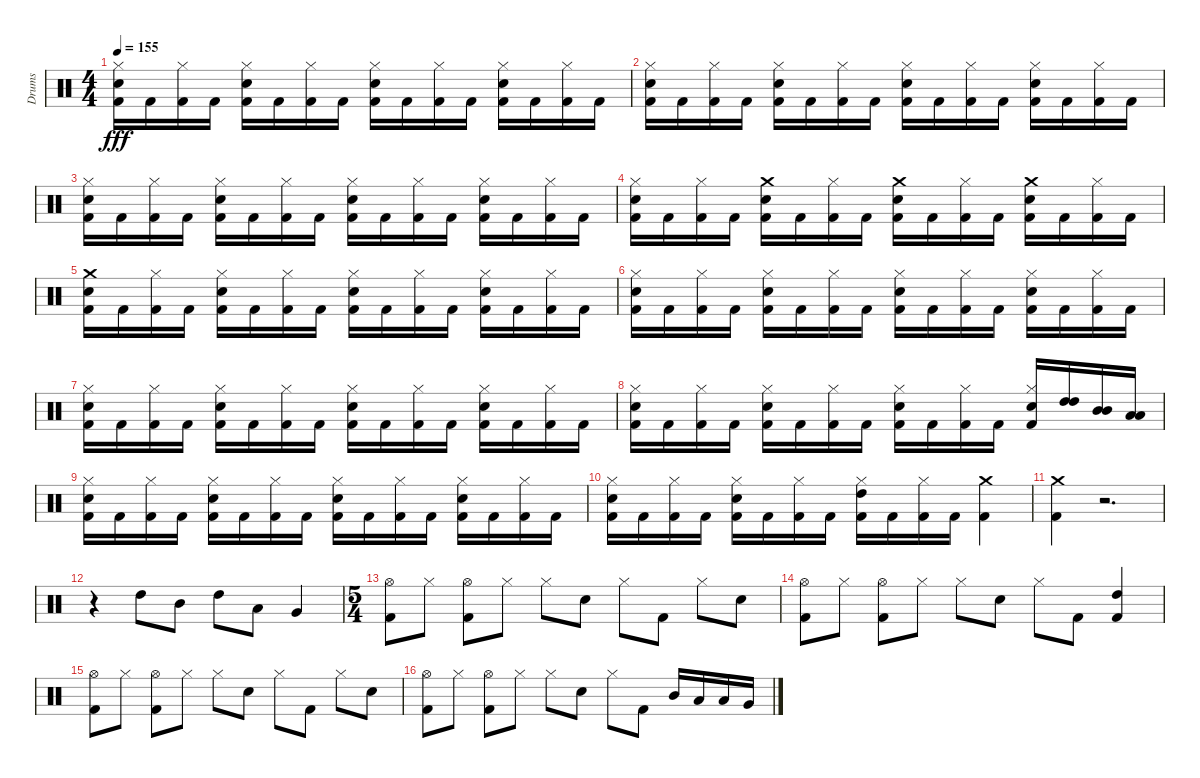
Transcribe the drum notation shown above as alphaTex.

\track ("Drums" "Drums") {instrument percussion}
\staff {score}
\articulation defaults
\ts (4 4)
\tempo 155
\clef neutral
\ks c
("Electric Snare (hit)" "Hi-Hat (closed)" "Kick (hit) 2").16{dy fff} "Kick (hit) 2".16 ("Hi-Hat (closed)" "Kick (hit) 2").16 "Kick (hit) 2".16 ("Electric Snare (hit)" "Hi-Hat (closed)" "Kick (hit) 2").16 "Kick (hit) 2".16 ("Hi-Hat (closed)" "Kick (hit) 2").16 "Kick (hit) 2".16 ("Electric Snare (hit)" "Hi-Hat (closed)" "Kick (hit) 2").16 "Kick (hit) 2".16 ("Hi-Hat (closed)" "Kick (hit) 2").16 "Kick (hit) 2".16 ("Electric Snare (hit)" "Hi-Hat (closed)" "Kick (hit) 2").16 "Kick (hit) 2".16 ("Hi-Hat (closed)" "Kick (hit) 2").16 "Kick (hit) 2".16 |
("Electric Snare (hit)" "Hi-Hat (closed)" "Kick (hit) 2").16 "Kick (hit) 2".16 ("Hi-Hat (closed)" "Kick (hit) 2").16 "Kick (hit) 2".16 ("Electric Snare (hit)" "Hi-Hat (closed)" "Kick (hit) 2").16 "Kick (hit) 2".16 ("Hi-Hat (closed)" "Kick (hit) 2").16 "Kick (hit) 2".16 ("Electric Snare (hit)" "Hi-Hat (closed)" "Kick (hit) 2").16 "Kick (hit) 2".16 ("Hi-Hat (closed)" "Kick (hit) 2").16 "Kick (hit) 2".16 ("Electric Snare (hit)" "Hi-Hat (closed)" "Kick (hit) 2").16 "Kick (hit) 2".16 ("Hi-Hat (closed)" "Kick (hit) 2").16 "Kick (hit) 2".16 |
("Electric Snare (hit)" "Hi-Hat (closed)" "Kick (hit) 2").16 "Kick (hit) 2".16 ("Hi-Hat (closed)" "Kick (hit) 2").16 "Kick (hit) 2".16 ("Electric Snare (hit)" "Hi-Hat (closed)" "Kick (hit) 2").16 "Kick (hit) 2".16 ("Hi-Hat (closed)" "Kick (hit) 2").16 "Kick (hit) 2".16 ("Electric Snare (hit)" "Hi-Hat (closed)" "Kick (hit) 2").16 "Kick (hit) 2".16 ("Hi-Hat (closed)" "Kick (hit) 2").16 "Kick (hit) 2".16 ("Electric Snare (hit)" "Hi-Hat (closed)" "Kick (hit) 2").16 "Kick (hit) 2".16 ("Hi-Hat (closed)" "Kick (hit) 2").16 "Kick (hit) 2".16 |
("Electric Snare (hit)" "Hi-Hat (closed)" "Kick (hit) 2").16 "Kick (hit) 2".16 ("Hi-Hat (closed)" "Kick (hit) 2").16 "Kick (hit) 2".16 ("Electric Snare (hit)" "Crash medium (hit)" "Kick (hit) 2").16 "Kick (hit) 2".16 ("Hi-Hat (closed)" "Kick (hit) 2").16 "Kick (hit) 2".16 ("Electric Snare (hit)" "Crash medium (hit)" "Kick (hit) 2").16 "Kick (hit) 2".16 ("Hi-Hat (closed)" "Kick (hit) 2").16 "Kick (hit) 2".16 ("Electric Snare (hit)" "Crash medium (hit)" "Kick (hit) 2").16 "Kick (hit) 2".16 ("Hi-Hat (closed)" "Kick (hit) 2").16 "Kick (hit) 2".16 |
("Electric Snare (hit)" "Crash medium (hit)" "Kick (hit) 2").16 "Kick (hit) 2".16 ("Hi-Hat (closed)" "Kick (hit) 2").16 "Kick (hit) 2".16 ("Electric Snare (hit)" "Hi-Hat (closed)" "Kick (hit) 2").16 "Kick (hit) 2".16 ("Hi-Hat (closed)" "Kick (hit) 2").16 "Kick (hit) 2".16 ("Electric Snare (hit)" "Hi-Hat (closed)" "Kick (hit) 2").16 "Kick (hit) 2".16 ("Hi-Hat (closed)" "Kick (hit) 2").16 "Kick (hit) 2".16 ("Electric Snare (hit)" "Hi-Hat (closed)" "Kick (hit) 2").16 "Kick (hit) 2".16 ("Hi-Hat (closed)" "Kick (hit) 2").16 "Kick (hit) 2".16 |
("Electric Snare (hit)" "Hi-Hat (closed)" "Kick (hit) 2").16 "Kick (hit) 2".16 ("Hi-Hat (closed)" "Kick (hit) 2").16 "Kick (hit) 2".16 ("Electric Snare (hit)" "Hi-Hat (closed)" "Kick (hit) 2").16 "Kick (hit) 2".16 ("Hi-Hat (closed)" "Kick (hit) 2").16 "Kick (hit) 2".16 ("Electric Snare (hit)" "Hi-Hat (closed)" "Kick (hit) 2").16 "Kick (hit) 2".16 ("Hi-Hat (closed)" "Kick (hit) 2").16 "Kick (hit) 2".16 ("Electric Snare (hit)" "Hi-Hat (closed)" "Kick (hit) 2").16 "Kick (hit) 2".16 ("Hi-Hat (closed)" "Kick (hit) 2").16 "Kick (hit) 2".16 |
("Electric Snare (hit)" "Hi-Hat (closed)" "Kick (hit) 2").16 "Kick (hit) 2".16 ("Hi-Hat (closed)" "Kick (hit) 2").16 "Kick (hit) 2".16 ("Electric Snare (hit)" "Hi-Hat (closed)" "Kick (hit) 2").16 "Kick (hit) 2".16 ("Hi-Hat (closed)" "Kick (hit) 2").16 "Kick (hit) 2".16 ("Electric Snare (hit)" "Hi-Hat (closed)" "Kick (hit) 2").16 "Kick (hit) 2".16 ("Hi-Hat (closed)" "Kick (hit) 2").16 "Kick (hit) 2".16 ("Electric Snare (hit)" "Hi-Hat (closed)" "Kick (hit) 2").16 "Kick (hit) 2".16 ("Hi-Hat (closed)" "Kick (hit) 2").16 "Kick (hit) 2".16 |
("Electric Snare (hit)" "Hi-Hat (closed)" "Kick (hit) 2").16 "Kick (hit) 2".16 ("Hi-Hat (closed)" "Kick (hit) 2").16 "Kick (hit) 2".16 ("Electric Snare (hit)" "Hi-Hat (closed)" "Kick (hit) 2").16 "Kick (hit) 2".16 ("Hi-Hat (closed)" "Kick (hit) 2").16 "Kick (hit) 2".16 ("Electric Snare (hit)" "Hi-Hat (closed)" "Kick (hit) 2").16 "Kick (hit) 2".16 ("Hi-Hat (closed)" "Kick (hit) 2").16 "Kick (hit) 2".16 ("Electric Snare (hit)" "Hi-Hat (closed)" "Kick (hit) 2").16 ("High Tom (hit)" "High Tom (hit)").16 ("Mid Tom (hit)" "Mid Tom (hit)").16 ("Low Tom (hit)" "Low Tom (hit)").16 |
("Electric Snare (hit)" "Hi-Hat (closed)" "Kick (hit) 2").16 "Kick (hit) 2".16 ("Hi-Hat (closed)" "Kick (hit) 2").16 "Kick (hit) 2".16 ("Electric Snare (hit)" "Hi-Hat (closed)" "Kick (hit) 2").16 "Kick (hit) 2".16 ("Hi-Hat (closed)" "Kick (hit) 2").16 "Kick (hit) 2".16 ("Electric Snare (hit)" "Hi-Hat (closed)" "Kick (hit) 2").16 "Kick (hit) 2".16 ("Hi-Hat (closed)" "Kick (hit) 2").16 "Kick (hit) 2".16 ("Electric Snare (hit)" "Hi-Hat (closed)" "Kick (hit) 2").16 "Kick (hit) 2".16 ("Hi-Hat (closed)" "Kick (hit) 2").16 "Kick (hit) 2".16 |
("Electric Snare (hit)" "Hi-Hat (closed)" "Kick (hit) 2").16 "Kick (hit) 2".16 ("Hi-Hat (closed)" "Kick (hit) 2").16 "Kick (hit) 2".16 ("Electric Snare (hit)" "Hi-Hat (closed)" "Kick (hit) 2").16 "Kick (hit) 2".16 ("Hi-Hat (closed)" "Kick (hit) 2").16 "Kick (hit) 2".16 ("Hi-Hat (closed)" "High Tom (hit)" "Kick (hit) 2").16 "Kick (hit) 2".16 ("Hi-Hat (closed)" "Kick (hit) 2").16 "Kick (hit) 2".16 ("Crash medium (hit)" "Kick (hit) 2").4 |
("Crash medium (hit)" "Kick (hit) 2").4 r.2{d} |
r.4 "High Tom (hit)".8 "Mid Tom (hit)".8 "High Tom (hit)".8 "Low Tom (hit)".8 "Very Low Tom (hit)".4 |
\ts (5 4)
("Hi-Hat (open)" "Kick (hit) 2").8 "Hi-Hat (closed)".8 ("Hi-Hat (open)" "Kick (hit) 2").8 "Hi-Hat (closed)".8 "Hi-Hat (closed)".8 "Electric Snare (hit)".8 "Hi-Hat (closed)".8 "Kick (hit) 2".8 "Hi-Hat (closed)".8 "Electric Snare (hit)".8 |
("Hi-Hat (open)" "Kick (hit) 2").8 "Hi-Hat (closed)".8 ("Hi-Hat (open)" "Kick (hit) 2").8 "Hi-Hat (closed)".8 "Hi-Hat (closed)".8 "Electric Snare (hit)".8 "Hi-Hat (closed)".8 "Kick (hit) 2".8 ("High Tom (hit)" "Kick (hit) 2").4 |
("Hi-Hat (open)" "Kick (hit) 2").8 "Hi-Hat (closed)".8 ("Hi-Hat (open)" "Kick (hit) 2").8 "Hi-Hat (closed)".8 "Hi-Hat (closed)".8 "Electric Snare (hit)".8 "Hi-Hat (closed)".8 "Kick (hit) 2".8 "Hi-Hat (closed)".8 "Electric Snare (hit)".8 |
("Hi-Hat (open)" "Kick (hit) 2").8 "Hi-Hat (closed)".8 ("Hi-Hat (open)" "Kick (hit) 2").8 "Hi-Hat (closed)".8 "Hi-Hat (closed)".8 "Electric Snare (hit)".8 "Hi-Hat (closed)".8 "Kick (hit) 2".8 "Mid Tom (hit)".16 "Low Tom (hit)".16 "Low Tom (hit)".16 "Very Low Tom (hit)".16
